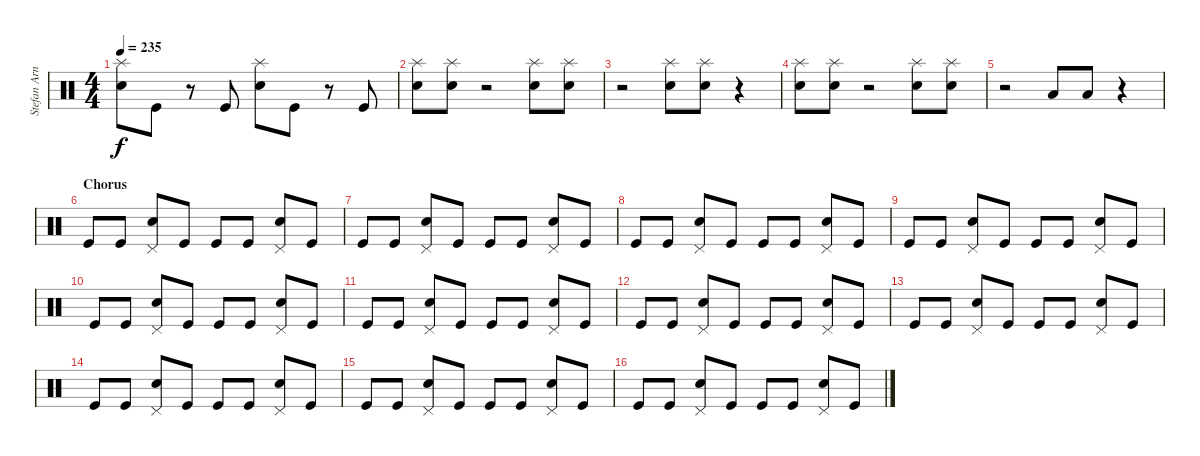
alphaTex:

\track ("Stefan Arnold" "Stefan Arn") {instrument percussion}
\staff {score}
\articulation defaults
\ts (4 4)
\tempo 235
\clef neutral
\ks c
("Electric Snare (hit)" "Splash (hit)").8{dy f} "Kick (hit)".8 r.8 "Kick (hit)".8 ("Electric Snare (hit)" "Splash (hit)").8 "Kick (hit)".8 r.8 "Kick (hit)".8 |
("Electric Snare (hit)" "Splash (hit)").8 ("Electric Snare (hit)" "Splash (hit)").8 r.2 ("Electric Snare (hit)" "Splash (hit)").8 ("Electric Snare (hit)" "Splash (hit)").8 |
r.2 ("Electric Snare (hit)" "Splash (hit)").8 ("Electric Snare (hit)" "Splash (hit)").8 r.4 |
("Electric Snare (hit)" "Splash (hit)").8 ("Electric Snare (hit)" "Splash (hit)").8 r.2 ("Electric Snare (hit)" "Splash (hit)").8 ("Electric Snare (hit)" "Splash (hit)").8 |
r.2 "Low Tom (hit)".8 "Low Tom (hit)".8 r.4 |
\section ("" "Chorus")
"Kick (hit)".8 "Kick (hit)".8 ("Electric Snare (hit)" "Pedal Hi-Hat (hit)").8 "Kick (hit)".8 "Kick (hit)".8 "Kick (hit)".8 ("Electric Snare (hit)" "Pedal Hi-Hat (hit)").8 "Kick (hit)".8 |
"Kick (hit)".8 "Kick (hit)".8 ("Electric Snare (hit)" "Pedal Hi-Hat (hit)").8 "Kick (hit)".8 "Kick (hit)".8 "Kick (hit)".8 ("Electric Snare (hit)" "Pedal Hi-Hat (hit)").8 "Kick (hit)".8 |
"Kick (hit)".8 "Kick (hit)".8 ("Electric Snare (hit)" "Pedal Hi-Hat (hit)").8 "Kick (hit)".8 "Kick (hit)".8 "Kick (hit)".8 ("Electric Snare (hit)" "Pedal Hi-Hat (hit)").8 "Kick (hit)".8 |
"Kick (hit)".8 "Kick (hit)".8 ("Electric Snare (hit)" "Pedal Hi-Hat (hit)").8 "Kick (hit)".8 "Kick (hit)".8 "Kick (hit)".8 ("Electric Snare (hit)" "Pedal Hi-Hat (hit)").8 "Kick (hit)".8 |
"Kick (hit)".8 "Kick (hit)".8 ("Electric Snare (hit)" "Pedal Hi-Hat (hit)").8 "Kick (hit)".8 "Kick (hit)".8 "Kick (hit)".8 ("Electric Snare (hit)" "Pedal Hi-Hat (hit)").8 "Kick (hit)".8 |
"Kick (hit)".8 "Kick (hit)".8 ("Electric Snare (hit)" "Pedal Hi-Hat (hit)").8 "Kick (hit)".8 "Kick (hit)".8 "Kick (hit)".8 ("Electric Snare (hit)" "Pedal Hi-Hat (hit)").8 "Kick (hit)".8 |
"Kick (hit)".8 "Kick (hit)".8 ("Electric Snare (hit)" "Pedal Hi-Hat (hit)").8 "Kick (hit)".8 "Kick (hit)".8 "Kick (hit)".8 ("Electric Snare (hit)" "Pedal Hi-Hat (hit)").8 "Kick (hit)".8 |
"Kick (hit)".8 "Kick (hit)".8 ("Electric Snare (hit)" "Pedal Hi-Hat (hit)").8 "Kick (hit)".8 "Kick (hit)".8 "Kick (hit)".8 ("Electric Snare (hit)" "Pedal Hi-Hat (hit)").8 "Kick (hit)".8 |
"Kick (hit)".8 "Kick (hit)".8 ("Electric Snare (hit)" "Pedal Hi-Hat (hit)").8 "Kick (hit)".8 "Kick (hit)".8 "Kick (hit)".8 ("Electric Snare (hit)" "Pedal Hi-Hat (hit)").8 "Kick (hit)".8 |
"Kick (hit)".8 "Kick (hit)".8 ("Electric Snare (hit)" "Pedal Hi-Hat (hit)").8 "Kick (hit)".8 "Kick (hit)".8 "Kick (hit)".8 ("Electric Snare (hit)" "Pedal Hi-Hat (hit)").8 "Kick (hit)".8 |
"Kick (hit)".8 "Kick (hit)".8 ("Electric Snare (hit)" "Pedal Hi-Hat (hit)").8 "Kick (hit)".8 "Kick (hit)".8 "Kick (hit)".8 ("Electric Snare (hit)" "Pedal Hi-Hat (hit)").8 "Kick (hit)".8
